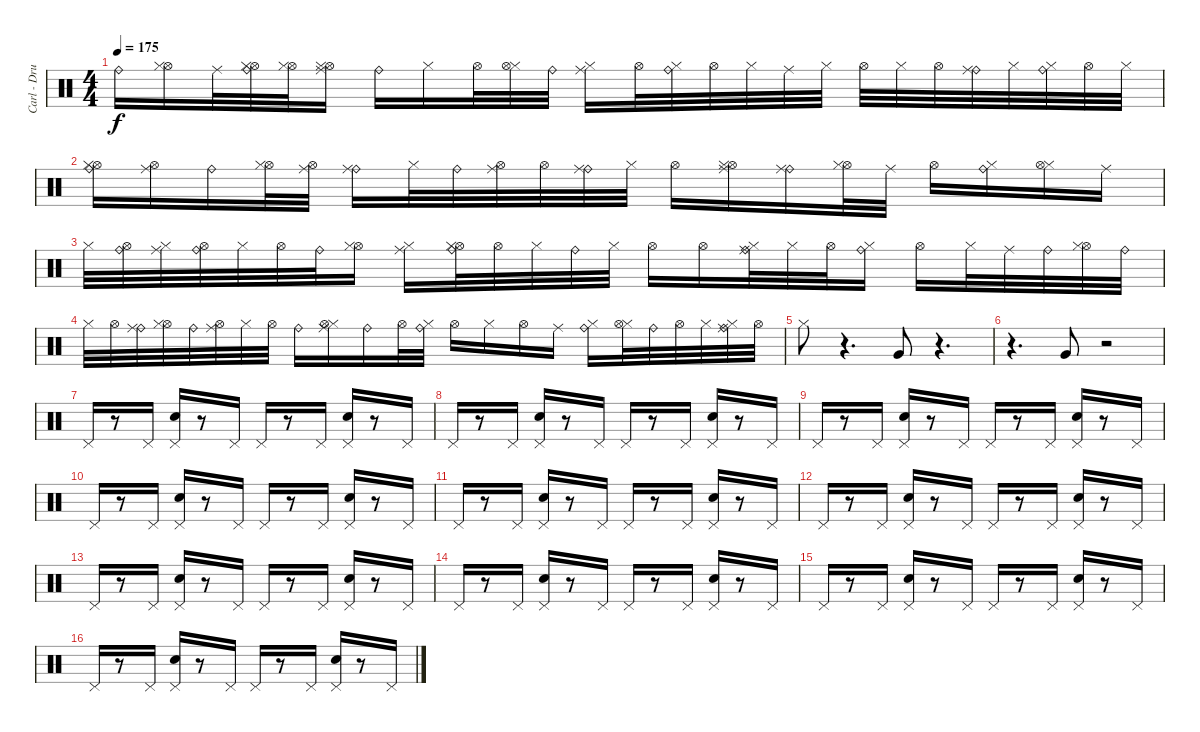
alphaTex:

\track ("Carl - Drums II" "Carl - Dru") {instrument percussion}
\staff {score}
\articulation defaults
\ts (4 4)
\tempo 175
\clef neutral
\ks c "Ride (bell)".16{dy f}
("Hi-Hat (open)" "Hi-Hat (closed)").16 "Ride (middle)".32 ("Hi-Hat (open)" "Ride (bell)" "Hi-Hat (closed)").32 ("Hi-Hat (open)" "Hi-Hat (closed)").32 ("Hi-Hat (open)" "Ride (middle)" "Hi-Hat (closed)").16 "Ride (bell)".16 "Hi-Hat (closed)".16 "Hi-Hat (open)".32 ("Hi-Hat (closed)" "Hi-Hat (open)").32 "Ride (bell)".32 ("Ride (middle)" "Hi-Hat (closed)").16 "Hi-Hat (open)".32 ("Ride (bell)" "Hi-Hat (closed)").32 "Hi-Hat (open)".32 "Hi-Hat (closed)".32 "Ride (middle)".32 "Hi-Hat (closed)".32 "Hi-Hat (open)".32 "Hi-Hat (closed)".32 "Hi-Hat (open)".32 ("Ride (bell)" "Ride (middle)").32 "Hi-Hat (closed)".32 ("Ride (bell)" "Hi-Hat (closed)").32 "Hi-Hat (open)".32 "Hi-Hat (closed)".32 |
("Hi-Hat (open)" "Ride (bell)" "Hi-Hat (closed)").16 ("Hi-Hat (open)" "Ride (middle)").16 "Ride (bell)".16 ("Hi-Hat (open)" "Hi-Hat (closed)").32 ("Hi-Hat (open)" "Ride (middle)").32 ("Ride (bell)" "Ride (middle)").16 "Hi-Hat (closed)".32 "Ride (bell)".32 ("Hi-Hat (open)" "Ride (middle)").32 "Hi-Hat (open)".32 ("Ride (bell)" "Ride (middle)").32 "Hi-Hat (closed)".32 "Hi-Hat (open)".16 ("Hi-Hat (open)" "Ride (middle)" "Hi-Hat (closed)").16 ("Ride (bell)" "Ride (middle)").16 ("Hi-Hat (open)" "Hi-Hat (closed)").32 "Ride (middle)".32 "Hi-Hat (open)".16 ("Ride (bell)" "Hi-Hat (closed)").16 ("Hi-Hat (closed)" "Hi-Hat (open)").16 "Ride (middle)".16 |
"Hi-Hat (closed)".32 ("Hi-Hat (open)" "Ride (bell)").32 ("Ride (middle)" "Hi-Hat (closed)").32 ("Hi-Hat (open)" "Ride (bell)").32 "Hi-Hat (closed)".32 "Hi-Hat (open)".32 "Ride (bell)".32 ("Hi-Hat (open)" "Hi-Hat (closed)").16 ("Ride (middle)" "Hi-Hat (closed)").16 ("Hi-Hat (open)" "Ride (bell)" "Hi-Hat (closed)").32 "Hi-Hat (open)".32 "Hi-Hat (closed)".32 "Ride (bell)".32 "Hi-Hat (closed)".32 "Hi-Hat (open)".16 "Hi-Hat (open)".16 ("Ride (bell)" "Ride (middle)" "Hi-Hat (closed)").32 "Hi-Hat (closed)".32 "Hi-Hat (open)".32 ("Ride (bell)" "Hi-Hat (closed)").16 "Hi-Hat (open)".16 "Hi-Hat (closed)".32 "Ride (middle)".32 "Ride (bell)".32 ("Hi-Hat (open)" "Hi-Hat (closed)").32 "Ride (bell)".32 |
"Hi-Hat (closed)".32 "Hi-Hat (open)".32 ("Ride (bell)" "Ride (middle)").32 ("Hi-Hat (open)" "Hi-Hat (closed)").32 "Ride (bell)".32 ("Hi-Hat (open)" "Ride (middle)").32 "Hi-Hat (closed)".32 "Hi-Hat (open)".32 "Ride (bell)".16 ("Ride (middle)" "Hi-Hat (closed)" "Hi-Hat (open)").16 "Ride (bell)".16 "Hi-Hat (open)".32 ("Ride (bell)" "Hi-Hat (closed)").32 "Hi-Hat (open)".16 "Hi-Hat (closed)".16 "Hi-Hat (open)".16 "Ride (middle)".16 ("Ride (bell)" "Hi-Hat (closed)").16 ("Hi-Hat (closed)" "Hi-Hat (open)").32 "Ride (bell)".32 "Hi-Hat (open)".32 "Hi-Hat (closed)".32 ("Ride (bell)" "Ride (middle)" "Hi-Hat (closed)").32 "Hi-Hat (open)".32 |
"Hi-Hat (closed)".8 r.4{d} "Very Low Tom (hit)".8 r.4{d} |
r.4{d} "Very Low Tom (hit)".8 r.2 |
"Pedal Hi-Hat (hit)".16 r.8 "Pedal Hi-Hat (hit)".16 ("Pedal Hi-Hat (hit)" "Electric Snare (hit)").16 r.8 "Pedal Hi-Hat (hit)".16 "Pedal Hi-Hat (hit)".16 r.8 "Pedal Hi-Hat (hit)".16 ("Pedal Hi-Hat (hit)" "Electric Snare (hit)").16 r.8 "Pedal Hi-Hat (hit)".16 |
"Pedal Hi-Hat (hit)".16 r.8 "Pedal Hi-Hat (hit)".16 ("Pedal Hi-Hat (hit)" "Electric Snare (hit)").16 r.8 "Pedal Hi-Hat (hit)".16 "Pedal Hi-Hat (hit)".16 r.8 "Pedal Hi-Hat (hit)".16 ("Pedal Hi-Hat (hit)" "Electric Snare (hit)").16 r.8 "Pedal Hi-Hat (hit)".16 |
"Pedal Hi-Hat (hit)".16 r.8 "Pedal Hi-Hat (hit)".16 ("Pedal Hi-Hat (hit)" "Electric Snare (hit)").16 r.8 "Pedal Hi-Hat (hit)".16 "Pedal Hi-Hat (hit)".16 r.8 "Pedal Hi-Hat (hit)".16 ("Pedal Hi-Hat (hit)" "Electric Snare (hit)").16 r.8 "Pedal Hi-Hat (hit)".16 |
"Pedal Hi-Hat (hit)".16 r.8 "Pedal Hi-Hat (hit)".16 ("Pedal Hi-Hat (hit)" "Electric Snare (hit)").16 r.8 "Pedal Hi-Hat (hit)".16 "Pedal Hi-Hat (hit)".16 r.8 "Pedal Hi-Hat (hit)".16 ("Pedal Hi-Hat (hit)" "Electric Snare (hit)").16 r.8 "Pedal Hi-Hat (hit)".16 |
"Pedal Hi-Hat (hit)".16 r.8 "Pedal Hi-Hat (hit)".16 ("Pedal Hi-Hat (hit)" "Electric Snare (hit)").16 r.8 "Pedal Hi-Hat (hit)".16 "Pedal Hi-Hat (hit)".16 r.8 "Pedal Hi-Hat (hit)".16 ("Pedal Hi-Hat (hit)" "Electric Snare (hit)").16 r.8 "Pedal Hi-Hat (hit)".16 |
"Pedal Hi-Hat (hit)".16 r.8 "Pedal Hi-Hat (hit)".16 ("Pedal Hi-Hat (hit)" "Electric Snare (hit)").16 r.8 "Pedal Hi-Hat (hit)".16 "Pedal Hi-Hat (hit)".16 r.8 "Pedal Hi-Hat (hit)".16 ("Pedal Hi-Hat (hit)" "Electric Snare (hit)").16 r.8 "Pedal Hi-Hat (hit)".16 |
"Pedal Hi-Hat (hit)".16 r.8 "Pedal Hi-Hat (hit)".16 ("Pedal Hi-Hat (hit)" "Electric Snare (hit)").16 r.8 "Pedal Hi-Hat (hit)".16 "Pedal Hi-Hat (hit)".16 r.8 "Pedal Hi-Hat (hit)".16 ("Pedal Hi-Hat (hit)" "Electric Snare (hit)").16 r.8 "Pedal Hi-Hat (hit)".16 |
"Pedal Hi-Hat (hit)".16 r.8 "Pedal Hi-Hat (hit)".16 ("Pedal Hi-Hat (hit)" "Electric Snare (hit)").16 r.8 "Pedal Hi-Hat (hit)".16 "Pedal Hi-Hat (hit)".16 r.8 "Pedal Hi-Hat (hit)".16 ("Pedal Hi-Hat (hit)" "Electric Snare (hit)").16 r.8 "Pedal Hi-Hat (hit)".16 |
"Pedal Hi-Hat (hit)".16 r.8 "Pedal Hi-Hat (hit)".16 ("Pedal Hi-Hat (hit)" "Electric Snare (hit)").16 r.8 "Pedal Hi-Hat (hit)".16 "Pedal Hi-Hat (hit)".16 r.8 "Pedal Hi-Hat (hit)".16 ("Pedal Hi-Hat (hit)" "Electric Snare (hit)").16 r.8 "Pedal Hi-Hat (hit)".16 |
"Pedal Hi-Hat (hit)".16 r.8 "Pedal Hi-Hat (hit)".16 ("Pedal Hi-Hat (hit)" "Electric Snare (hit)").16 r.8 "Pedal Hi-Hat (hit)".16 "Pedal Hi-Hat (hit)".16 r.8 "Pedal Hi-Hat (hit)".16 ("Pedal Hi-Hat (hit)" "Electric Snare (hit)").16 r.8 "Pedal Hi-Hat (hit)".16
